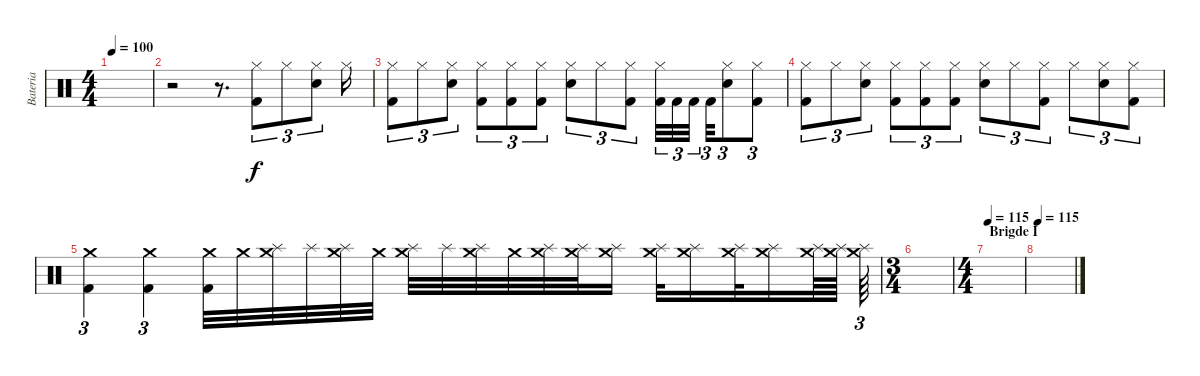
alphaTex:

\track ("Bateria" "Bateria") {instrument percussion}
\staff {score}
\articulation defaults
\ts (4 4)
\tempo 100
\clef neutral
\ks c
|
r.2 r.8{d} ("Kick (hit) 2" "Hi-Hat (closed)").8{tu (3 2)} "Hi-Hat (closed)".8{tu (3 2)} ("Snare (hit) 2" "Hi-Hat (closed)").8{tu (3 2)} "Hi-Hat (closed)".16 |
("Kick (hit) 2" "Hi-Hat (closed)").8{tu (3 2)} "Hi-Hat (closed)".8{tu (3 2)} ("Hi-Hat (closed)" "Snare (hit) 2").8{tu (3 2)} ("Kick (hit) 2" "Hi-Hat (closed)").8{tu (3 2)} ("Hi-Hat (closed)" "Kick (hit) 2").8{tu (3 2)} ("Kick (hit) 2" "Hi-Hat (closed)").8{tu (3 2)} ("Snare (hit) 2" "Hi-Hat (closed)").8{tu (3 2)} "Hi-Hat (closed)".8{tu (3 2)} ("Kick (hit) 2" "Hi-Hat (closed)").8{tu (3 2)} ("Hi-Hat (closed)" "Kick (hit) 2").32{tu (3 2)} "Kick (hit) 2".32{tu (3 2)} "Kick (hit) 2".32{tu (3 2)} "Kick (hit) 2".32{tu (3 2)} ("Hi-Hat (closed)" "Snare (hit) 2").8{tu (3 2)} ("Hi-Hat (closed)" "Kick (hit) 2").8{tu (3 2)} |
("Kick (hit) 2" "Hi-Hat (closed)").8{tu (3 2)} "Hi-Hat (closed)".8{tu (3 2)} ("Hi-Hat (closed)" "Snare (hit) 2").8{tu (3 2)} ("Kick (hit) 2" "Hi-Hat (closed)").8{tu (3 2)} ("Hi-Hat (closed)" "Kick (hit) 2").8{tu (3 2)} ("Kick (hit) 2" "Hi-Hat (closed)").8{tu (3 2)} ("Snare (hit) 2" "Hi-Hat (closed)").8{tu (3 2)} "Hi-Hat (closed)".8{tu (3 2)} ("Kick (hit) 2" "Hi-Hat (closed)").8{tu (3 2)} "Hi-Hat (closed)".8{tu (3 2)} ("Hi-Hat (closed)" "Snare (hit) 2").8{tu (3 2)} ("Hi-Hat (closed)" "Kick (hit) 2").8{tu (3 2)} |
("Crash medium (hit)" "Kick (hit) 2").4{tu (3 2)} ("Crash medium (hit)" "Kick (hit) 2").4{tu (3 2)} ("Crash medium (hit)" "Kick (hit) 2").32 "Crash medium (hit)".32 ("Splash (hit)" "Crash medium (hit)").32 "Splash (hit)".32 ("Crash medium (hit)" "Splash (hit)").32 "Crash medium (hit)".32 ("Crash medium (hit)" "Splash (hit)").32 "Splash (hit)".32 ("Crash medium (hit)" "Splash (hit)").32 "Crash medium (hit)".32 ("Crash medium (hit)" "Splash (hit)").32 ("Crash medium (hit)" "Splash (hit)").32 ("Crash medium (hit)" "Splash (hit)").16 ("Crash medium (hit)" "Splash (hit)").32 ("Crash medium (hit)" "Splash (hit)").16 ("Crash medium (hit)" "Splash (hit)").32 ("Crash medium (hit)" "Splash (hit)").16 ("Crash medium (hit)" "Splash (hit)").64 ("Crash medium (hit)" "Splash (hit)").64 ("Crash medium (hit)" "Splash (hit)").64{tu (3 2)} |
\ts (3 4)
|
\ts (4 4)
\section ("" "Brigde I")
\tempo 115
|
\tempo 115
